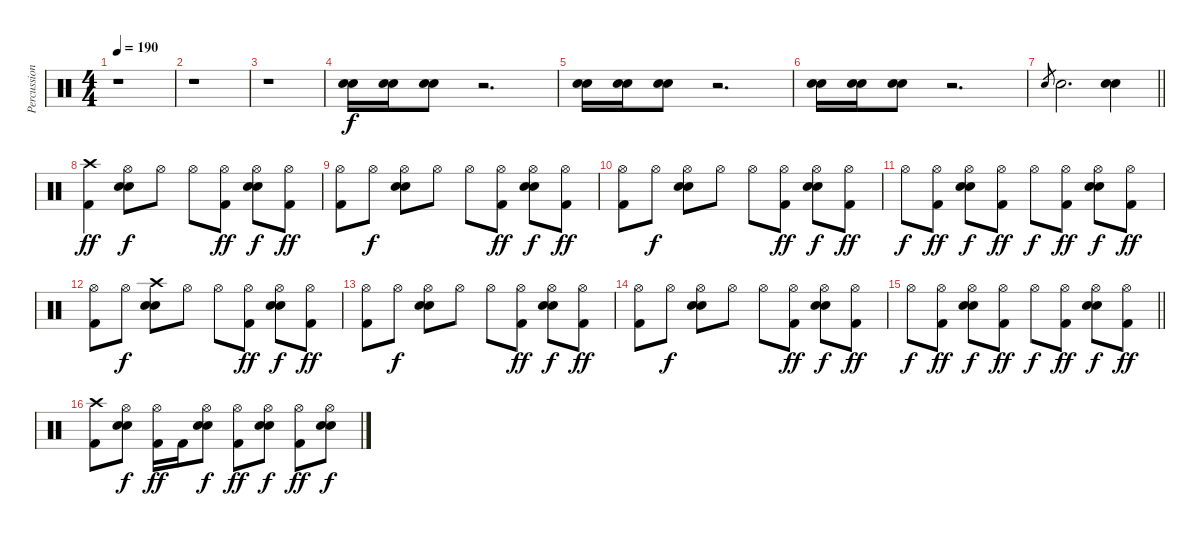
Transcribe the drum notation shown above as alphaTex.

\track ("Percussion" "Percussion") {instrument percussion}
\staff {score}
\articulation defaults
\ts (4 4)
\tempo 190
\clef neutral
\ks c
r.1{dy ff} |
r.1 |
r.1 |
("Electric Snare (hit)" "Snare (hit) 2").16{dy f} ("Electric Snare (hit)" "Snare (hit) 2").16 ("Electric Snare (hit)" "Snare (hit) 2").8 r.2{d} |
("Electric Snare (hit)" "Snare (hit) 2").16 ("Electric Snare (hit)" "Snare (hit) 2").16 ("Electric Snare (hit)" "Snare (hit) 2").8 r.2{d} |
("Electric Snare (hit)" "Snare (hit) 2").16 ("Electric Snare (hit)" "Snare (hit) 2").16 ("Electric Snare (hit)" "Snare (hit) 2").8 r.2{d} |
\barLineRight lightlight "Snare (hit) 2".8{gr} "Electric Snare (hit)".2{d}
("Electric Snare (hit)" "Snare (hit) 2").4 |
\section ("" "")
("Crash high (hit)" "Kick (hit) 2").4{dy ff} ("Hi-Hat (open)" "Electric Snare (hit)" "Snare (hit) 2").8{dy f} "Hi-Hat (open)".8 "Hi-Hat (open)".8 ("Hi-Hat (open)" "Kick (hit) 2").8{dy ff} ("Hi-Hat (open)" "Electric Snare (hit)" "Snare (hit) 2").8{dy f} ("Hi-Hat (open)" "Kick (hit) 2").8{dy ff} |
("Hi-Hat (open)" "Kick (hit) 2").8 "Hi-Hat (open)".8{dy f} ("Hi-Hat (open)" "Electric Snare (hit)" "Snare (hit) 2").8 "Hi-Hat (open)".8 "Hi-Hat (open)".8 ("Hi-Hat (open)" "Kick (hit) 2").8{dy ff} ("Hi-Hat (open)" "Electric Snare (hit)" "Snare (hit) 2").8{dy f} ("Hi-Hat (open)" "Kick (hit) 2").8{dy ff} |
("Hi-Hat (open)" "Kick (hit) 2").8 "Hi-Hat (open)".8{dy f} ("Hi-Hat (open)" "Electric Snare (hit)" "Snare (hit) 2").8 "Hi-Hat (open)".8 "Hi-Hat (open)".8 ("Hi-Hat (open)" "Kick (hit) 2").8{dy ff} ("Hi-Hat (open)" "Electric Snare (hit)" "Snare (hit) 2").8{dy f} ("Hi-Hat (open)" "Kick (hit) 2").8{dy ff} |
"Hi-Hat (open)".8{dy f} ("Hi-Hat (open)" "Kick (hit) 2").8{dy ff} ("Hi-Hat (open)" "Electric Snare (hit)" "Snare (hit) 2").8{dy f} ("Hi-Hat (open)" "Kick (hit) 2").8{dy ff} "Hi-Hat (open)".8{dy f} ("Hi-Hat (open)" "Kick (hit) 2").8{dy ff} ("Hi-Hat (open)" "Electric Snare (hit)" "Snare (hit) 2").8{dy f} ("Hi-Hat (open)" "Kick (hit) 2").8{dy ff} |
("Hi-Hat (open)" "Kick (hit) 2").8 "Hi-Hat (open)".8{dy f} ("Crash high (hit)" "Electric Snare (hit)" "Snare (hit) 2").8 "Hi-Hat (open)".8 "Hi-Hat (open)".8 ("Hi-Hat (open)" "Kick (hit) 2").8{dy ff} ("Hi-Hat (open)" "Electric Snare (hit)" "Snare (hit) 2").8{dy f} ("Hi-Hat (open)" "Kick (hit) 2").8{dy ff} |
("Hi-Hat (open)" "Kick (hit) 2").8 "Hi-Hat (open)".8{dy f} ("Hi-Hat (open)" "Electric Snare (hit)" "Snare (hit) 2").8 "Hi-Hat (open)".8 "Hi-Hat (open)".8 ("Hi-Hat (open)" "Kick (hit) 2").8{dy ff} ("Hi-Hat (open)" "Electric Snare (hit)" "Snare (hit) 2").8{dy f} ("Hi-Hat (open)" "Kick (hit) 2").8{dy ff} |
("Hi-Hat (open)" "Kick (hit) 2").8 "Hi-Hat (open)".8{dy f} ("Hi-Hat (open)" "Electric Snare (hit)" "Snare (hit) 2").8 "Hi-Hat (open)".8 "Hi-Hat (open)".8 ("Hi-Hat (open)" "Kick (hit) 2").8{dy ff} ("Hi-Hat (open)" "Electric Snare (hit)" "Snare (hit) 2").8{dy f} ("Hi-Hat (open)" "Kick (hit) 2").8{dy ff} |
\barLineRight lightlight "Hi-Hat (open)".8{dy f}
("Hi-Hat (open)" "Kick (hit) 2").8{dy ff} ("Hi-Hat (open)" "Electric Snare (hit)" "Snare (hit) 2").8{dy f} ("Hi-Hat (open)" "Kick (hit) 2").8{dy ff} "Hi-Hat (open)".8{dy f} ("Hi-Hat (open)" "Kick (hit) 2").8{dy ff} ("Hi-Hat (open)" "Electric Snare (hit)" "Snare (hit) 2").8{dy f} ("Hi-Hat (open)" "Kick (hit) 2").8{dy ff} |
\section ("" "")
("Crash high (hit)" "Kick (hit) 2").8 ("Hi-Hat (open)" "Electric Snare (hit)" "Snare (hit) 2").8{dy f} ("Hi-Hat (open)" "Kick (hit) 2").16{dy ff} "Kick (hit) 2".16 ("Hi-Hat (open)" "Electric Snare (hit)" "Snare (hit) 2").8{dy f} ("Hi-Hat (open)" "Kick (hit) 2").8{dy ff} ("Hi-Hat (open)" "Electric Snare (hit)" "Snare (hit) 2").8{dy f} ("Hi-Hat (open)" "Kick (hit) 2").8{dy ff} ("Hi-Hat (open)" "Electric Snare (hit)" "Snare (hit) 2").8{dy f}
